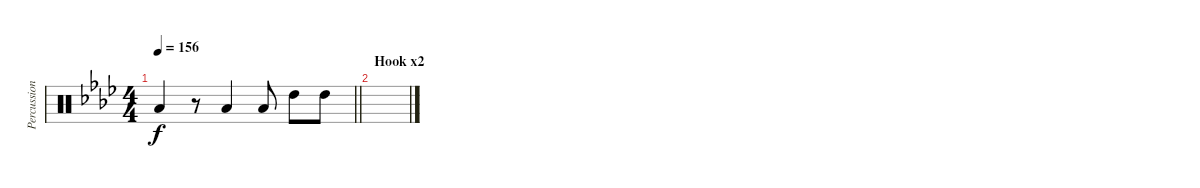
\track ("Percussion " "Percussion") {instrument percussion}
\staff {score}
\articulation defaults
\ts (4 4)
\tempo 156
\clef neutral
\barLineRight lightlight
\ks fminor "Low Tom (hit)".4{dy f}
r.8 "Low Tom (hit)".4 "Low Tom (hit)".8 "High Tom (hit)".8 "High Tom (hit)".8 |
\section ("" "Hook x2")
